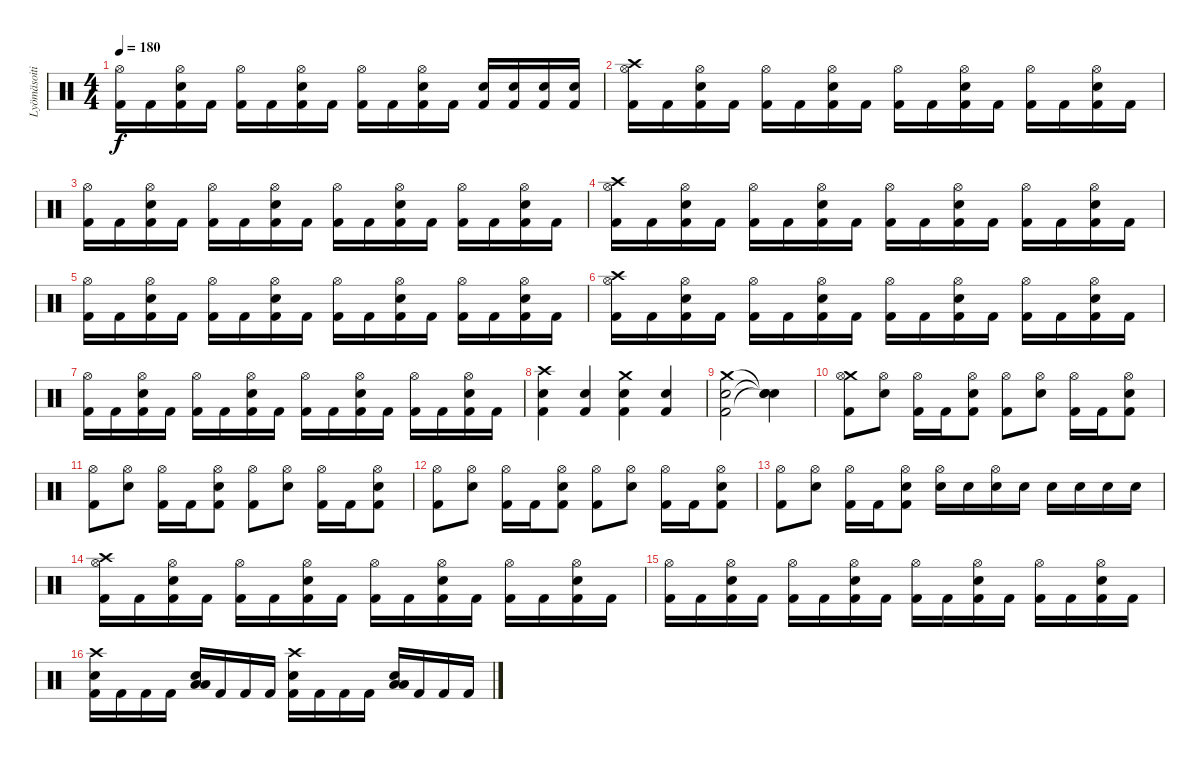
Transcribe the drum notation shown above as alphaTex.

\track ("Lyömäsoitin" "Lyömäsoiti") {instrument percussion}
\staff {score}
\articulation defaults
\ts (4 4)
\tempo 180
\clef neutral
\ks c
("Kick (hit) 2" "Hi-Hat (open)").16{dy f} "Kick (hit) 2".16 ("Kick (hit) 2" "Snare (hit) 2" "Hi-Hat (open)").16 "Kick (hit) 2".16 ("Kick (hit) 2" "Hi-Hat (open)").16 "Kick (hit) 2".16 ("Kick (hit) 2" "Snare (hit) 2" "Hi-Hat (open)").16 "Kick (hit) 2".16 ("Kick (hit) 2" "Hi-Hat (open)").16 "Kick (hit) 2".16 ("Kick (hit) 2" "Snare (hit) 2" "Hi-Hat (open)").16 "Kick (hit) 2".16 ("Kick (hit) 2" "Snare (hit) 2").16 ("Kick (hit) 2" "Snare (hit) 2").16 ("Kick (hit) 2" "Snare (hit) 2").16 ("Kick (hit) 2" "Snare (hit) 2").16 |
("Kick (hit) 2" "Crash high (hit)" "Hi-Hat (open)").16 "Kick (hit) 2".16 ("Kick (hit) 2" "Snare (hit) 2" "Hi-Hat (open)").16 "Kick (hit) 2".16 ("Kick (hit) 2" "Hi-Hat (open)").16 "Kick (hit) 2".16 ("Kick (hit) 2" "Snare (hit) 2" "Hi-Hat (open)").16 "Kick (hit) 2".16 ("Kick (hit) 2" "Hi-Hat (open)").16 "Kick (hit) 2".16 ("Kick (hit) 2" "Snare (hit) 2" "Hi-Hat (open)").16 "Kick (hit) 2".16 ("Kick (hit) 2" "Hi-Hat (open)").16 "Kick (hit) 2".16 ("Kick (hit) 2" "Snare (hit) 2" "Hi-Hat (open)").16 "Kick (hit) 2".16 |
("Kick (hit) 2" "Hi-Hat (open)").16 "Kick (hit) 2".16 ("Kick (hit) 2" "Snare (hit) 2" "Hi-Hat (open)").16 "Kick (hit) 2".16 ("Kick (hit) 2" "Hi-Hat (open)").16 "Kick (hit) 2".16 ("Kick (hit) 2" "Snare (hit) 2" "Hi-Hat (open)").16 "Kick (hit) 2".16 ("Kick (hit) 2" "Hi-Hat (open)").16 "Kick (hit) 2".16 ("Kick (hit) 2" "Snare (hit) 2" "Hi-Hat (open)").16 "Kick (hit) 2".16 ("Kick (hit) 2" "Hi-Hat (open)").16 "Kick (hit) 2".16 ("Kick (hit) 2" "Snare (hit) 2" "Hi-Hat (open)").16 "Kick (hit) 2".16 |
("Kick (hit) 2" "Crash high (hit)" "Hi-Hat (open)").16 "Kick (hit) 2".16 ("Kick (hit) 2" "Snare (hit) 2" "Hi-Hat (open)").16 "Kick (hit) 2".16 ("Kick (hit) 2" "Hi-Hat (open)").16 "Kick (hit) 2".16 ("Kick (hit) 2" "Snare (hit) 2" "Hi-Hat (open)").16 "Kick (hit) 2".16 ("Kick (hit) 2" "Hi-Hat (open)").16 "Kick (hit) 2".16 ("Kick (hit) 2" "Snare (hit) 2" "Hi-Hat (open)").16 "Kick (hit) 2".16 ("Kick (hit) 2" "Hi-Hat (open)").16 "Kick (hit) 2".16 ("Kick (hit) 2" "Snare (hit) 2" "Hi-Hat (open)").16 "Kick (hit) 2".16 |
("Kick (hit) 2" "Hi-Hat (open)").16 "Kick (hit) 2".16 ("Kick (hit) 2" "Snare (hit) 2" "Hi-Hat (open)").16 "Kick (hit) 2".16 ("Kick (hit) 2" "Hi-Hat (open)").16 "Kick (hit) 2".16 ("Kick (hit) 2" "Snare (hit) 2" "Hi-Hat (open)").16 "Kick (hit) 2".16 ("Kick (hit) 2" "Hi-Hat (open)").16 "Kick (hit) 2".16 ("Kick (hit) 2" "Snare (hit) 2" "Hi-Hat (open)").16 "Kick (hit) 2".16 ("Kick (hit) 2" "Hi-Hat (open)").16 "Kick (hit) 2".16 ("Kick (hit) 2" "Snare (hit) 2" "Hi-Hat (open)").16 "Kick (hit) 2".16 |
("Kick (hit) 2" "Crash high (hit)" "Hi-Hat (open)").16 "Kick (hit) 2".16 ("Kick (hit) 2" "Snare (hit) 2" "Hi-Hat (open)").16 "Kick (hit) 2".16 ("Kick (hit) 2" "Hi-Hat (open)").16 "Kick (hit) 2".16 ("Kick (hit) 2" "Snare (hit) 2" "Hi-Hat (open)").16 "Kick (hit) 2".16 ("Kick (hit) 2" "Hi-Hat (open)").16 "Kick (hit) 2".16 ("Kick (hit) 2" "Snare (hit) 2" "Hi-Hat (open)").16 "Kick (hit) 2".16 ("Kick (hit) 2" "Hi-Hat (open)").16 "Kick (hit) 2".16 ("Kick (hit) 2" "Snare (hit) 2" "Hi-Hat (open)").16 "Kick (hit) 2".16 |
("Kick (hit) 2" "Hi-Hat (open)").16 "Kick (hit) 2".16 ("Kick (hit) 2" "Snare (hit) 2" "Hi-Hat (open)").16 "Kick (hit) 2".16 ("Kick (hit) 2" "Hi-Hat (open)").16 "Kick (hit) 2".16 ("Kick (hit) 2" "Snare (hit) 2" "Hi-Hat (open)").16 "Kick (hit) 2".16 ("Kick (hit) 2" "Hi-Hat (open)").16 "Kick (hit) 2".16 ("Kick (hit) 2" "Snare (hit) 2" "Hi-Hat (open)").16 "Kick (hit) 2".16 ("Kick (hit) 2" "Hi-Hat (open)").16 "Kick (hit) 2".16 ("Kick (hit) 2" "Snare (hit) 2" "Hi-Hat (open)").16 "Kick (hit) 2".16 |
("Kick (hit) 2" "Snare (hit) 2" "Crash high (hit)").4 ("Kick (hit) 2" "Snare (hit) 2").4 ("Kick (hit) 2" "Snare (hit) 2" "Crash medium (hit)").4 ("Kick (hit) 2" "Snare (hit) 2").4 |
("Kick (hit) 2" "Snare (hit) 2" "Crash medium (hit)").2 ("Snare (hit)"{t} "Snare (hit)"{t} "Snare (hit)"{t}).4 |
("Kick (hit) 2" "Crash medium (hit)" "Hi-Hat (open)").8 ("Snare (hit) 2" "Hi-Hat (open)").8 ("Kick (hit) 2" "Hi-Hat (open)").16 "Kick (hit) 2".16 ("Kick (hit) 2" "Snare (hit) 2" "Hi-Hat (open)").8 ("Kick (hit) 2" "Hi-Hat (open)").8 ("Snare (hit) 2" "Hi-Hat (open)").8 ("Kick (hit) 2" "Hi-Hat (open)").16 "Kick (hit) 2".16 ("Kick (hit) 2" "Snare (hit) 2" "Hi-Hat (open)").8 |
("Kick (hit) 2" "Hi-Hat (open)").8 ("Snare (hit) 2" "Hi-Hat (open)").8 ("Kick (hit) 2" "Hi-Hat (open)").16 "Kick (hit) 2".16 ("Kick (hit) 2" "Snare (hit) 2" "Hi-Hat (open)").8 ("Kick (hit) 2" "Hi-Hat (open)").8 ("Snare (hit) 2" "Hi-Hat (open)").8 ("Kick (hit) 2" "Hi-Hat (open)").16 "Kick (hit) 2".16 ("Kick (hit) 2" "Snare (hit) 2" "Hi-Hat (open)").8 |
("Kick (hit) 2" "Hi-Hat (open)").8 ("Snare (hit) 2" "Hi-Hat (open)").8 ("Kick (hit) 2" "Hi-Hat (open)").16 "Kick (hit) 2".16 ("Kick (hit) 2" "Snare (hit) 2" "Hi-Hat (open)").8 ("Kick (hit) 2" "Hi-Hat (open)").8 ("Snare (hit) 2" "Hi-Hat (open)").8 ("Kick (hit) 2" "Hi-Hat (open)").16 "Kick (hit) 2".16 ("Kick (hit) 2" "Snare (hit) 2" "Hi-Hat (open)").8 |
("Kick (hit) 2" "Hi-Hat (open)").8 ("Snare (hit) 2" "Hi-Hat (open)").8 ("Kick (hit) 2" "Hi-Hat (open)").16 "Kick (hit) 2".16 ("Kick (hit) 2" "Snare (hit) 2" "Hi-Hat (open)").8 ("Snare (hit) 2" "Hi-Hat (open)").16 "Snare (hit) 2".16 ("Snare (hit) 2" "Hi-Hat (open)").16 "Snare (hit) 2".16 "Snare (hit) 2".16 "Snare (hit) 2".16 "Snare (hit) 2".16 "Snare (hit) 2".16 |
("Kick (hit) 2" "Crash high (hit)" "Hi-Hat (open)").16 "Kick (hit) 2".16 ("Kick (hit) 2" "Snare (hit) 2" "Hi-Hat (open)").16 "Kick (hit) 2".16 ("Kick (hit) 2" "Hi-Hat (open)").16 "Kick (hit) 2".16 ("Kick (hit) 2" "Snare (hit) 2" "Hi-Hat (open)").16 "Kick (hit) 2".16 ("Kick (hit) 2" "Hi-Hat (open)").16 "Kick (hit) 2".16 ("Kick (hit) 2" "Snare (hit) 2" "Hi-Hat (open)").16 "Kick (hit) 2".16 ("Kick (hit) 2" "Hi-Hat (open)").16 "Kick (hit) 2".16 ("Kick (hit) 2" "Snare (hit) 2" "Hi-Hat (open)").16 "Kick (hit) 2".16 |
("Kick (hit) 2" "Hi-Hat (open)").16 "Kick (hit) 2".16 ("Kick (hit) 2" "Snare (hit) 2" "Hi-Hat (open)").16 "Kick (hit) 2".16 ("Kick (hit) 2" "Hi-Hat (open)").16 "Kick (hit) 2".16 ("Kick (hit) 2" "Snare (hit) 2" "Hi-Hat (open)").16 "Kick (hit) 2".16 ("Kick (hit) 2" "Hi-Hat (open)").16 "Kick (hit) 2".16 ("Kick (hit) 2" "Snare (hit) 2" "Hi-Hat (open)").16 "Kick (hit) 2".16 ("Kick (hit) 2" "Hi-Hat (open)").16 "Kick (hit) 2".16 ("Kick (hit) 2" "Snare (hit) 2" "Hi-Hat (open)").16 "Kick (hit) 2".16 |
("Kick (hit) 2" "Snare (hit) 2" "Crash high (hit)").16 "Kick (hit) 2".16 "Kick (hit) 2".16 "Kick (hit) 2".16 ("Snare (hit) 2" "Low Floor Tom (hit)" "Low Floor Tom (hit)").16 "Kick (hit) 2".16 "Kick (hit) 2".16 "Kick (hit) 2".16 ("Kick (hit) 2" "Snare (hit) 2" "Crash high (hit)").16 "Kick (hit) 2".16 "Kick (hit) 2".16 "Kick (hit) 2".16 ("Snare (hit) 2" "Low Floor Tom (hit)" "Low Floor Tom (hit)").16 "Kick (hit) 2".16 "Kick (hit) 2".16 "Kick (hit) 2".16
